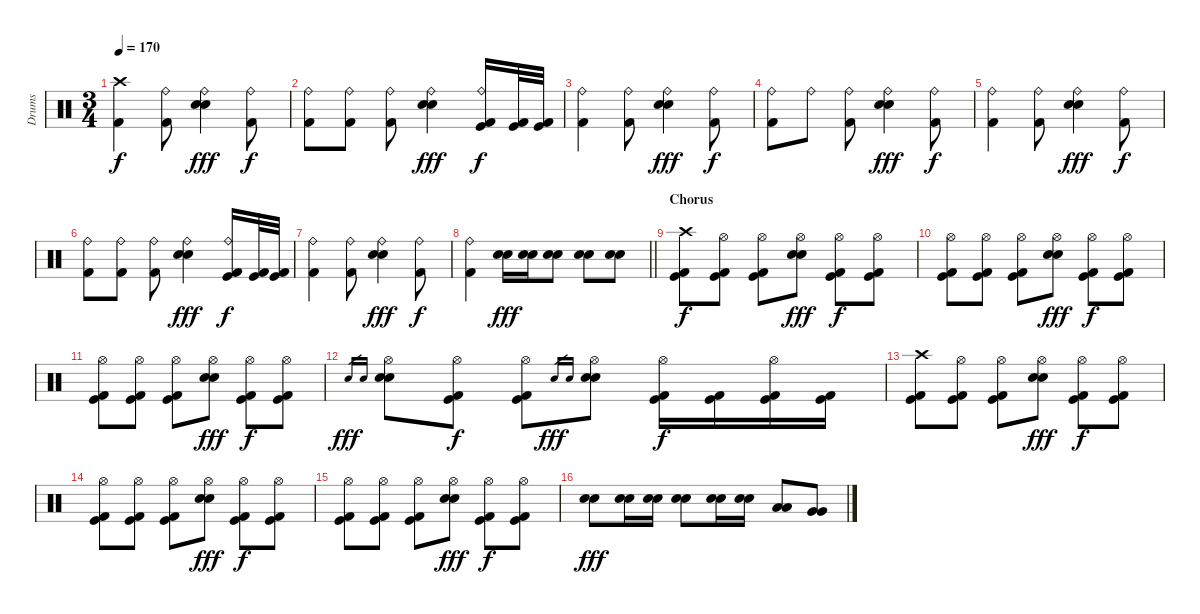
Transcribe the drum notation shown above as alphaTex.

\track ("Drums" "Drums") {instrument percussion}
\staff {score}
\articulation defaults
\ts (3 4)
\tempo 170
\clef neutral
\ks c
("Crash high (hit)" "Kick (hit) 2").4{dy f} ("Ride (bell)" "Kick (hit) 2").8 ("Ride (bell)" "Electric Snare (hit)" "Electric Snare (hit)").4{dy fff} ("Ride (bell)" "Kick (hit) 2").8{dy f} |
("Ride (bell)" "Kick (hit) 2").8 ("Ride (bell)" "Kick (hit) 2").8 ("Ride (bell)" "Kick (hit) 2").8 ("Ride (bell)" "Electric Snare (hit)" "Electric Snare (hit)").4{dy fff} ("Ride (bell)" "Kick (hit)" "Kick (hit) 2").16{dy f} ("Kick (hit)" "Kick (hit) 2").32 ("Kick (hit)" "Kick (hit) 2").32 |
("Ride (bell)" "Kick (hit) 2").4 ("Ride (bell)" "Kick (hit) 2").8 ("Ride (bell)" "Electric Snare (hit)" "Electric Snare (hit)").4{dy fff} ("Ride (bell)" "Kick (hit) 2").8{dy f} |
("Ride (bell)" "Kick (hit) 2").8 "Ride (bell)".8 ("Ride (bell)" "Kick (hit) 2").8 ("Ride (bell)" "Electric Snare (hit)" "Electric Snare (hit)").4{dy fff} ("Ride (bell)" "Kick (hit) 2").8{dy f} |
("Ride (bell)" "Kick (hit) 2").4 ("Ride (bell)" "Kick (hit) 2").8 ("Ride (bell)" "Electric Snare (hit)" "Electric Snare (hit)").4{dy fff} ("Ride (bell)" "Kick (hit) 2").8{dy f} |
("Ride (bell)" "Kick (hit) 2").8 ("Ride (bell)" "Kick (hit) 2").8 ("Ride (bell)" "Kick (hit) 2").8 ("Ride (bell)" "Electric Snare (hit)" "Electric Snare (hit)").4{dy fff} ("Ride (bell)" "Kick (hit)" "Kick (hit) 2").16{dy f} ("Kick (hit)" "Kick (hit) 2").32 ("Kick (hit)" "Kick (hit) 2").32 |
("Ride (bell)" "Kick (hit) 2").4 ("Ride (bell)" "Kick (hit) 2").8 ("Ride (bell)" "Electric Snare (hit)" "Electric Snare (hit)").4{dy fff} ("Ride (bell)" "Kick (hit) 2").8{dy f} |
\barLineRight lightlight
("Ride (bell)" "Kick (hit) 2").4 ("Electric Snare (hit)" "Electric Snare (hit)").16{dy fff} ("Electric Snare (hit)" "Electric Snare (hit)").16 ("Electric Snare (hit)" "Electric Snare (hit)").8 ("Electric Snare (hit)" "Electric Snare (hit)").8 ("Electric Snare (hit)" "Electric Snare (hit)").8 |
\section ("" "Chorus")
("Crash high (hit)" "Kick (hit)" "Kick (hit) 2").8{dy f} ("Hi-Hat (open)" "Kick (hit)" "Kick (hit) 2").8 ("Hi-Hat (open)" "Kick (hit)" "Kick (hit) 2").8 ("Hi-Hat (open)" "Electric Snare (hit)" "Electric Snare (hit)").8{dy fff} ("Hi-Hat (open)" "Kick (hit)" "Kick (hit) 2").8{dy f} ("Hi-Hat (open)" "Kick (hit)" "Kick (hit) 2").8 |
("Hi-Hat (open)" "Kick (hit)" "Kick (hit) 2").8 ("Hi-Hat (open)" "Kick (hit)" "Kick (hit) 2").8 ("Hi-Hat (open)" "Kick (hit)" "Kick (hit) 2").8 ("Hi-Hat (open)" "Electric Snare (hit)" "Electric Snare (hit)").8{dy fff} ("Hi-Hat (open)" "Kick (hit)" "Kick (hit) 2").8{dy f} ("Hi-Hat (open)" "Kick (hit)" "Kick (hit) 2").8 |
("Hi-Hat (open)" "Kick (hit)" "Kick (hit) 2").8 ("Hi-Hat (open)" "Kick (hit)" "Kick (hit) 2").8 ("Hi-Hat (open)" "Kick (hit)" "Kick (hit) 2").8 ("Hi-Hat (open)" "Electric Snare (hit)" "Electric Snare (hit)").8{dy fff} ("Hi-Hat (open)" "Kick (hit)" "Kick (hit) 2").8{dy f} ("Hi-Hat (open)" "Kick (hit)" "Kick (hit) 2").8 |
"Electric Snare (hit)".16{gr dy fff} "Electric Snare (hit)".16{gr} ("Hi-Hat (open)" "Electric Snare (hit)" "Electric Snare (hit)").8 ("Hi-Hat (open)" "Kick (hit)" "Kick (hit) 2").8{dy f} ("Hi-Hat (open)" "Kick (hit)" "Kick (hit) 2").8 "Electric Snare (hit)".16{gr dy fff} "Electric Snare (hit)".16{gr} ("Hi-Hat (open)" "Electric Snare (hit)" "Electric Snare (hit)").8 ("Hi-Hat (open)" "Kick (hit)" "Kick (hit) 2").16{dy f} ("Kick (hit)" "Kick (hit) 2").16 ("Hi-Hat (open)" "Kick (hit)" "Kick (hit) 2").16 ("Kick (hit)" "Kick (hit) 2").16 |
("Crash high (hit)" "Kick (hit)" "Kick (hit) 2").8 ("Hi-Hat (open)" "Kick (hit)" "Kick (hit) 2").8 ("Hi-Hat (open)" "Kick (hit)" "Kick (hit) 2").8 ("Hi-Hat (open)" "Electric Snare (hit)" "Electric Snare (hit)").8{dy fff} ("Hi-Hat (open)" "Kick (hit)" "Kick (hit) 2").8{dy f} ("Hi-Hat (open)" "Kick (hit)" "Kick (hit) 2").8 |
("Hi-Hat (open)" "Kick (hit)" "Kick (hit) 2").8 ("Hi-Hat (open)" "Kick (hit)" "Kick (hit) 2").8 ("Hi-Hat (open)" "Kick (hit)" "Kick (hit) 2").8 ("Hi-Hat (open)" "Electric Snare (hit)" "Electric Snare (hit)").8{dy fff} ("Hi-Hat (open)" "Kick (hit)" "Kick (hit) 2").8{dy f} ("Hi-Hat (open)" "Kick (hit)" "Kick (hit) 2").8 |
("Hi-Hat (open)" "Kick (hit)" "Kick (hit) 2").8 ("Hi-Hat (open)" "Kick (hit)" "Kick (hit) 2").8 ("Hi-Hat (open)" "Kick (hit)" "Kick (hit) 2").8 ("Hi-Hat (open)" "Electric Snare (hit)" "Electric Snare (hit)").8{dy fff} ("Hi-Hat (open)" "Kick (hit)" "Kick (hit) 2").8{dy f} ("Hi-Hat (open)" "Kick (hit)" "Kick (hit) 2").8 |
("Electric Snare (hit)" "Electric Snare (hit)").8{dy fff} ("Electric Snare (hit)" "Electric Snare (hit)").16 ("Electric Snare (hit)" "Electric Snare (hit)").16 ("Electric Snare (hit)" "Electric Snare (hit)").8 ("Electric Snare (hit)" "Electric Snare (hit)").16 ("Electric Snare (hit)" "Electric Snare (hit)").16 ("Low Tom (hit)" "Low Tom (hit)").8 ("Very Low Tom (hit)" "Very Low Tom (hit)").8
